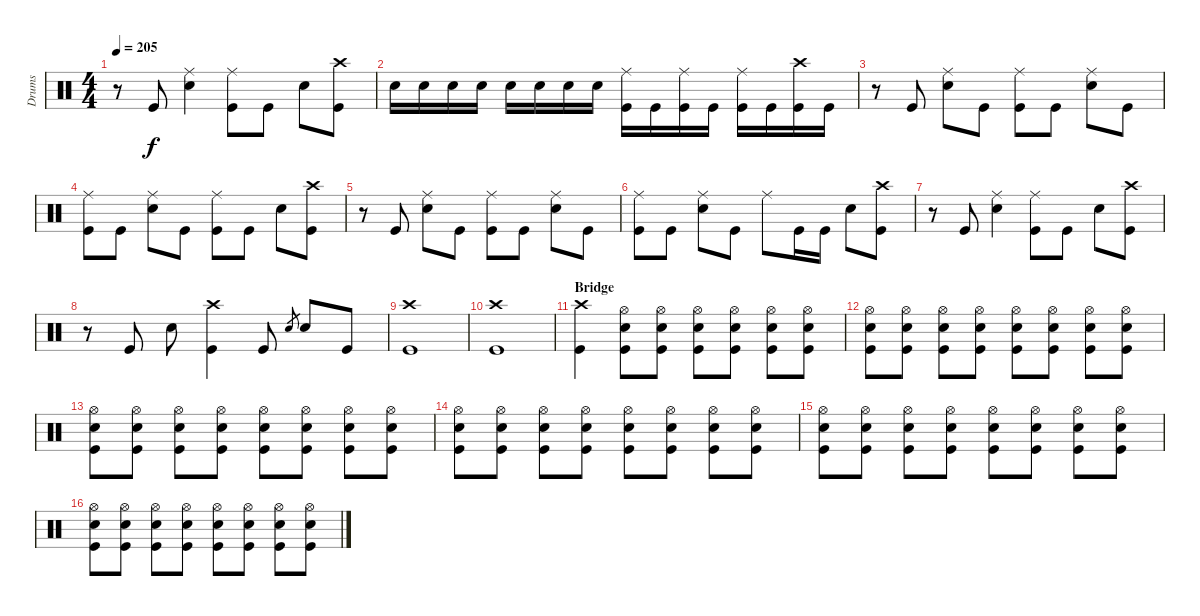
\track ("Drums" "Drums") {instrument percussion}
\staff {score}
\articulation defaults
\ts (4 4)
\tempo 205
\clef neutral
\ks c
r.8{dy f} "Kick (hit)".8 ("Ride (middle)" "Snare (hit) 2").4 ("Ride (middle)" "Kick (hit)").8 "Kick (hit)".8 "Snare (hit) 2".8 ("Crash high (hit)" "Kick (hit)").8 |
"Snare (hit) 2".16 "Snare (hit) 2".16 "Snare (hit) 2".16 "Snare (hit) 2".16 "Snare (hit) 2".16 "Snare (hit) 2".16 "Snare (hit) 2".16 "Snare (hit) 2".16 ("Ride (middle)" "Kick (hit)").16 "Kick (hit)".16 ("Ride (middle)" "Kick (hit)").16 "Kick (hit)".16 ("Ride (middle)" "Kick (hit)").16 "Kick (hit)".16 ("Crash high (hit)" "Kick (hit)").16 "Kick (hit)".16 |
r.8 "Kick (hit)".8 ("Ride (middle)" "Snare (hit) 2").8 "Kick (hit)".8 ("Ride (middle)" "Kick (hit)").8 "Kick (hit)".8 ("Ride (middle)" "Snare (hit) 2").8 "Kick (hit)".8 |
("Ride (middle)" "Kick (hit)").8 "Kick (hit)".8 ("Ride (middle)" "Snare (hit) 2").8 "Kick (hit)".8 ("Ride (middle)" "Kick (hit)").8 "Kick (hit)".8 "Snare (hit) 2".8 ("Crash high (hit)" "Kick (hit)").8 |
r.8 "Kick (hit)".8 ("Ride (middle)" "Snare (hit) 2").8 "Kick (hit)".8 ("Ride (middle)" "Kick (hit)").8 "Kick (hit)".8 ("Ride (middle)" "Snare (hit) 2").8 "Kick (hit)".8 |
("Ride (middle)" "Kick (hit)").8 "Kick (hit)".8 ("Ride (middle)" "Snare (hit) 2").8 "Kick (hit)".8 "Ride (middle)".8 "Kick (hit)".16 "Kick (hit)".16 "Snare (hit) 2".8 ("Crash high (hit)" "Kick (hit)").8 |
r.8 "Kick (hit)".8 ("Ride (middle)" "Snare (hit) 2").4 ("Ride (middle)" "Kick (hit)").8 "Kick (hit)".8 "Snare (hit) 2".8 ("Crash high (hit)" "Kick (hit)").8 |
r.8 "Kick (hit)".8 "Snare (hit) 2".8 ("Crash high (hit)" "Kick (hit)").4 "Kick (hit)".8 "Snare (hit) 2".8{gr} "Snare (hit) 2".8 "Kick (hit)".8 |
("Crash high (hit)" "Kick (hit)").1 |
("Crash high (hit)" "Kick (hit)").1 |
\section ("" "Bridge")
("Crash high (hit)" "Kick (hit)").4 ("Hi-Hat (open)" "Snare (hit) 2" "Kick (hit)").8 ("Hi-Hat (open)" "Snare (hit) 2" "Kick (hit)").8 ("Hi-Hat (open)" "Snare (hit) 2" "Kick (hit)").8 ("Hi-Hat (open)" "Snare (hit) 2" "Kick (hit)").8 ("Hi-Hat (open)" "Snare (hit) 2" "Kick (hit)").8 ("Hi-Hat (open)" "Snare (hit) 2" "Kick (hit)").8 |
("Hi-Hat (open)" "Snare (hit) 2" "Kick (hit)").8 ("Hi-Hat (open)" "Snare (hit) 2" "Kick (hit)").8 ("Hi-Hat (open)" "Snare (hit) 2" "Kick (hit)").8 ("Hi-Hat (open)" "Snare (hit) 2" "Kick (hit)").8 ("Hi-Hat (open)" "Snare (hit) 2" "Kick (hit)").8 ("Hi-Hat (open)" "Snare (hit) 2" "Kick (hit)").8 ("Hi-Hat (open)" "Snare (hit) 2" "Kick (hit)").8 ("Hi-Hat (open)" "Snare (hit) 2" "Kick (hit)").8 |
("Hi-Hat (open)" "Snare (hit) 2" "Kick (hit)").8 ("Hi-Hat (open)" "Snare (hit) 2" "Kick (hit)").8 ("Hi-Hat (open)" "Snare (hit) 2" "Kick (hit)").8 ("Hi-Hat (open)" "Snare (hit) 2" "Kick (hit)").8 ("Hi-Hat (open)" "Snare (hit) 2" "Kick (hit)").8 ("Hi-Hat (open)" "Snare (hit) 2" "Kick (hit)").8 ("Hi-Hat (open)" "Snare (hit) 2" "Kick (hit)").8 ("Hi-Hat (open)" "Snare (hit) 2" "Kick (hit)").8 |
("Hi-Hat (open)" "Snare (hit) 2" "Kick (hit)").8 ("Hi-Hat (open)" "Snare (hit) 2" "Kick (hit)").8 ("Hi-Hat (open)" "Snare (hit) 2" "Kick (hit)").8 ("Hi-Hat (open)" "Snare (hit) 2" "Kick (hit)").8 ("Hi-Hat (open)" "Snare (hit) 2" "Kick (hit)").8 ("Hi-Hat (open)" "Snare (hit) 2" "Kick (hit)").8 ("Hi-Hat (open)" "Snare (hit) 2" "Kick (hit)").8 ("Hi-Hat (open)" "Snare (hit) 2" "Kick (hit)").8 |
("Hi-Hat (open)" "Snare (hit) 2" "Kick (hit)").8 ("Hi-Hat (open)" "Snare (hit) 2" "Kick (hit)").8 ("Hi-Hat (open)" "Snare (hit) 2" "Kick (hit)").8 ("Hi-Hat (open)" "Snare (hit) 2" "Kick (hit)").8 ("Hi-Hat (open)" "Snare (hit) 2" "Kick (hit)").8 ("Hi-Hat (open)" "Snare (hit) 2" "Kick (hit)").8 ("Hi-Hat (open)" "Snare (hit) 2" "Kick (hit)").8 ("Hi-Hat (open)" "Snare (hit) 2" "Kick (hit)").8 |
("Hi-Hat (open)" "Snare (hit) 2" "Kick (hit)").8 ("Hi-Hat (open)" "Snare (hit) 2" "Kick (hit)").8 ("Hi-Hat (open)" "Snare (hit) 2" "Kick (hit)").8 ("Hi-Hat (open)" "Snare (hit) 2" "Kick (hit)").8 ("Hi-Hat (open)" "Snare (hit) 2" "Kick (hit)").8 ("Hi-Hat (open)" "Snare (hit) 2" "Kick (hit)").8 ("Hi-Hat (open)" "Snare (hit) 2" "Kick (hit)").8 ("Hi-Hat (open)" "Snare (hit) 2" "Kick (hit)").8
